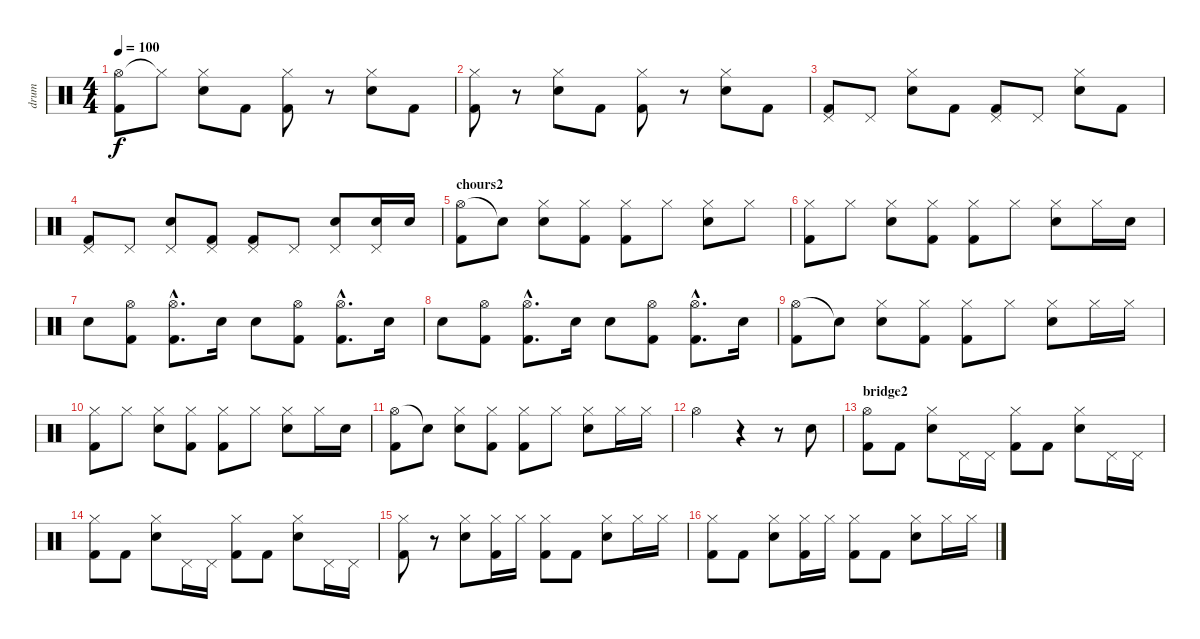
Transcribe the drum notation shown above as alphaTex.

\track ("drum" "drum") {instrument percussion}
\staff {score}
\articulation defaults
\ts (4 4)
\tempo 100
\clef neutral
\ks c
("Hi-Hat (open)" "Kick (hit) 2").8{dy f} "Hi-Hat (closed)"{t}.8 ("Hi-Hat (closed)" "Electric Snare (hit)").8 "Kick (hit) 2".8 ("Hi-Hat (closed)" "Kick (hit) 2").8 r.8 ("Hi-Hat (closed)" "Electric Snare (hit)").8 "Kick (hit) 2".8 |
("Hi-Hat (closed)" "Kick (hit) 2").8 r.8 ("Hi-Hat (closed)" "Electric Snare (hit)").8 "Kick (hit) 2".8 ("Hi-Hat (closed)" "Kick (hit) 2").8 r.8 ("Hi-Hat (closed)" "Electric Snare (hit)").8 "Kick (hit) 2".8 |
("Pedal Hi-Hat (hit)" "Kick (hit) 2").8 "Pedal Hi-Hat (hit)".8 ("Hi-Hat (closed)" "Electric Snare (hit)").8 "Kick (hit) 2".8 ("Pedal Hi-Hat (hit)" "Kick (hit) 2").8 "Pedal Hi-Hat (hit)".8 ("Hi-Hat (closed)" "Electric Snare (hit)").8 "Kick (hit) 2".8 |
("Pedal Hi-Hat (hit)" "Kick (hit) 2").8 "Pedal Hi-Hat (hit)".8 ("Pedal Hi-Hat (hit)" "Electric Snare (hit)").8 ("Pedal Hi-Hat (hit)" "Kick (hit) 2").8 ("Pedal Hi-Hat (hit)" "Kick (hit) 2").8 "Pedal Hi-Hat (hit)".8 ("Pedal Hi-Hat (hit)" "Electric Snare (hit)").8 ("Pedal Hi-Hat (hit)" "Electric Snare (hit)").16 "Electric Snare (hit)".16 |
\section ("" "chours2")
("Hi-Hat (open)" "Kick (hit) 2").8 "Snare (hit)"{t}.8 ("Hi-Hat (closed)" "Electric Snare (hit)").8 ("Hi-Hat (closed)" "Kick (hit) 2").8 ("Hi-Hat (closed)" "Kick (hit) 2").8 "Hi-Hat (closed)".8 ("Hi-Hat (closed)" "Electric Snare (hit)").8 "Hi-Hat (closed)".8 |
("Hi-Hat (closed)" "Kick (hit) 2").8 "Hi-Hat (closed)".8 ("Hi-Hat (closed)" "Electric Snare (hit)").8 ("Hi-Hat (closed)" "Kick (hit) 2").8 ("Hi-Hat (closed)" "Kick (hit) 2").8 "Hi-Hat (closed)".8 ("Hi-Hat (closed)" "Electric Snare (hit)").8 "Hi-Hat (closed)".16 "Electric Snare (hit)".16 |
"Electric Snare (hit)".8 ("Hi-Hat (open)" "Kick (hit) 2").8 ("Hi-Hat (open)"{hac} "Kick (hit) 2"{hac}).8{d} "Electric Snare (hit)".16 "Electric Snare (hit)".8 ("Hi-Hat (open)" "Kick (hit) 2").8 ("Hi-Hat (open)"{hac} "Kick (hit) 2"{hac}).8{d} "Electric Snare (hit)".16 |
"Electric Snare (hit)".8 ("Hi-Hat (open)" "Kick (hit) 2").8 ("Hi-Hat (open)"{hac} "Kick (hit) 2"{hac}).8{d} "Electric Snare (hit)".16 "Electric Snare (hit)".8 ("Hi-Hat (open)" "Kick (hit) 2").8 ("Hi-Hat (open)"{hac} "Kick (hit) 2"{hac}).8{d} "Electric Snare (hit)".16 |
("Hi-Hat (open)" "Kick (hit) 2").8 "Snare (hit)"{t}.8 ("Hi-Hat (closed)" "Electric Snare (hit)").8 ("Hi-Hat (closed)" "Kick (hit) 2").8 ("Hi-Hat (closed)" "Kick (hit) 2").8 "Hi-Hat (closed)".8 ("Hi-Hat (closed)" "Electric Snare (hit)").8 "Hi-Hat (closed)".16 "Hi-Hat (closed)".16 |
("Hi-Hat (closed)" "Kick (hit) 2").8 "Hi-Hat (closed)".8 ("Hi-Hat (closed)" "Electric Snare (hit)").8 ("Hi-Hat (closed)" "Kick (hit) 2").8 ("Hi-Hat (closed)" "Kick (hit) 2").8 "Hi-Hat (closed)".8 ("Hi-Hat (closed)" "Electric Snare (hit)").8 "Hi-Hat (closed)".16 "Electric Snare (hit)".16 |
("Hi-Hat (open)" "Kick (hit) 2").8 "Snare (hit)"{t}.8 ("Hi-Hat (closed)" "Electric Snare (hit)").8 ("Hi-Hat (closed)" "Kick (hit) 2").8 ("Hi-Hat (closed)" "Kick (hit) 2").8 "Hi-Hat (closed)".8 ("Hi-Hat (closed)" "Electric Snare (hit)").8 "Hi-Hat (closed)".16 "Hi-Hat (closed)".16 |
"Hi-Hat (open)".2 r.4 r.8 "Electric Snare (hit)".8 |
\section ("" "bridge2")
("Hi-Hat (open)" "Kick (hit) 2").8 "Kick (hit) 2".8 ("Hi-Hat (closed)" "Electric Snare (hit)").8 "Pedal Hi-Hat (hit)".16 "Pedal Hi-Hat (hit)".16 ("Hi-Hat (closed)" "Kick (hit) 2").8 "Kick (hit) 2".8 ("Hi-Hat (closed)" "Electric Snare (hit)").8 "Pedal Hi-Hat (hit)".16 "Pedal Hi-Hat (hit)".16 |
("Hi-Hat (closed)" "Kick (hit) 2").8 "Kick (hit) 2".8 ("Hi-Hat (closed)" "Electric Snare (hit)").8 "Pedal Hi-Hat (hit)".16 "Pedal Hi-Hat (hit)".16 ("Hi-Hat (closed)" "Kick (hit) 2").8 "Kick (hit) 2".8 ("Hi-Hat (closed)" "Electric Snare (hit)").8 "Pedal Hi-Hat (hit)".16 "Pedal Hi-Hat (hit)".16 |
("Hi-Hat (closed)" "Kick (hit) 2").8 r.8 ("Hi-Hat (closed)" "Electric Snare (hit)").8 ("Hi-Hat (closed)" "Kick (hit) 2").16 "Hi-Hat (closed)".16 ("Hi-Hat (closed)" "Kick (hit) 2").8 "Kick (hit) 2".8 ("Hi-Hat (closed)" "Electric Snare (hit)").8 "Hi-Hat (closed)".16 "Hi-Hat (closed)".16 |
("Hi-Hat (closed)" "Kick (hit) 2").8 "Kick (hit) 2".8 ("Hi-Hat (closed)" "Electric Snare (hit)").8 ("Hi-Hat (closed)" "Kick (hit) 2").16 "Hi-Hat (closed)".16 ("Hi-Hat (closed)" "Kick (hit) 2").8 "Kick (hit) 2".8 ("Hi-Hat (closed)" "Electric Snare (hit)").8 "Hi-Hat (closed)".16 "Hi-Hat (closed)".16
